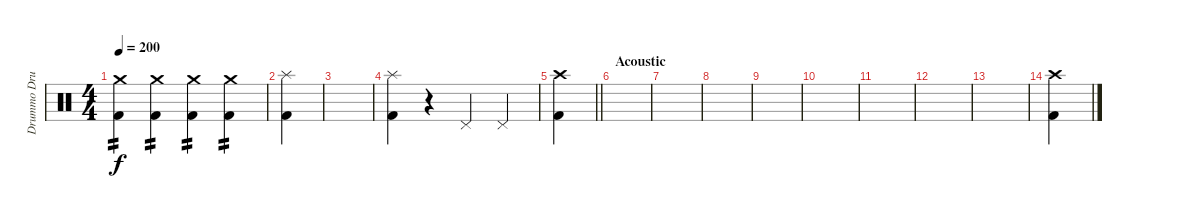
\track ("Drummo Drummer" "Drummo Dru") {instrument percussion}
\staff {score}
\articulation defaults
\ts (4 4)
\tempo 200
\clef neutral
\ks c
("Crash medium (hit)" "Kick (hit) 2").4{tp 2 dy f} ("Crash medium (hit)" "Kick (hit) 2").4{tp 2} ("Crash medium (hit)" "Kick (hit) 2").4{tp 2} ("Crash medium (hit)" "Kick (hit) 2").4{tp 2} |
("Splash (hit)" "Kick (hit) 2").4 |
|
("Splash (hit)" "Kick (hit) 2").4 r.4 "Pedal Hi-Hat (hit)".4 "Pedal Hi-Hat (hit)".4 |
\barLineRight lightlight
("Crash high (hit)" "Kick (hit) 2").4 |
\section ("" "Acoustic")
|
|
|
|
|
|
|
|
("Crash high (hit)" "Kick (hit) 2").4
